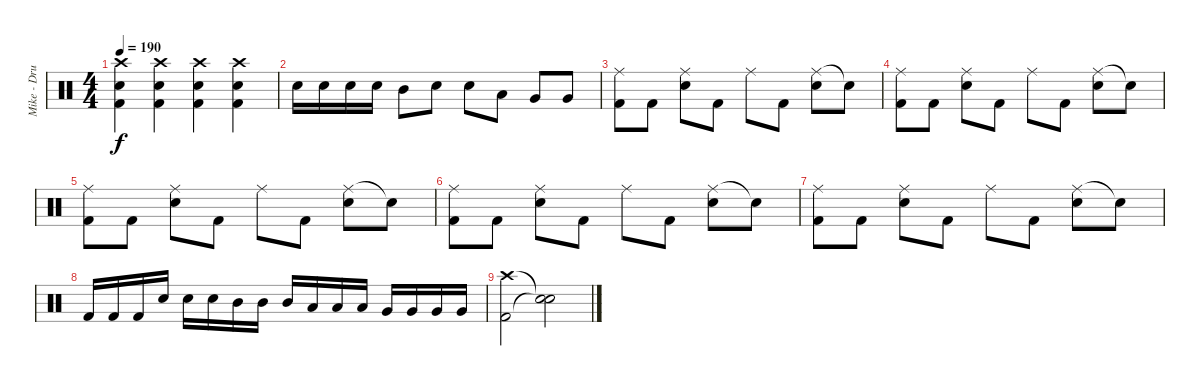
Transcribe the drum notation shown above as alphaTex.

\track ("Mike - Drums" "Mike - Dru") {instrument percussion}
\staff {score}
\articulation defaults
\ts (4 4)
\tempo 190
\clef neutral
\ks c
("Crash high (hit)" "Snare (hit) 2" "Kick (hit) 2").4{dy f} ("Crash high (hit)" "Snare (hit) 2" "Kick (hit) 2").4 ("Crash high (hit)" "Snare (hit) 2" "Kick (hit) 2").4 ("Crash high (hit)" "Snare (hit) 2" "Kick (hit) 2").4 |
"Snare (hit) 2".16 "Snare (hit) 2".16 "Snare (hit) 2".16 "Snare (hit) 2".16 "Mid Tom (hit)".8 "Snare (hit) 2".8 "Snare (hit) 2".8 "Low Tom (hit)".8 "Very Low Tom (hit)".8 "Very Low Tom (hit)".8 |
("Ride (middle)" "Kick (hit) 2").8 "Kick (hit) 2".8 ("Ride (middle)" "Snare (hit) 2").8 "Kick (hit) 2".8 "Ride (middle)".8 "Kick (hit) 2".8 ("Ride (middle)" "Snare (hit) 2").8 "Snare (hit)"{t}.8 |
("Ride (middle)" "Kick (hit) 2").8 "Kick (hit) 2".8 ("Ride (middle)" "Snare (hit) 2").8 "Kick (hit) 2".8 "Ride (middle)".8 "Kick (hit) 2".8 ("Ride (middle)" "Snare (hit) 2").8 "Snare (hit)"{t}.8 |
("Ride (middle)" "Kick (hit) 2").8 "Kick (hit) 2".8 ("Ride (middle)" "Snare (hit) 2").8 "Kick (hit) 2".8 "Ride (middle)".8 "Kick (hit) 2".8 ("Ride (middle)" "Snare (hit) 2").8 "Snare (hit)"{t}.8 |
("Ride (middle)" "Kick (hit) 2").8 "Kick (hit) 2".8 ("Ride (middle)" "Snare (hit) 2").8 "Kick (hit) 2".8 "Ride (middle)".8 "Kick (hit) 2".8 ("Ride (middle)" "Snare (hit) 2").8 "Snare (hit)"{t}.8 |
("Ride (middle)" "Kick (hit) 2").8 "Kick (hit) 2".8 ("Ride (middle)" "Snare (hit) 2").8 "Kick (hit) 2".8 "Ride (middle)".8 "Kick (hit) 2".8 ("Ride (middle)" "Snare (hit) 2").8 "Snare (hit)"{t}.8 |
"Kick (hit) 2".16 "Kick (hit) 2".16 "Kick (hit) 2".16 "Snare (hit) 2".16 "Snare (hit) 2".16 "Snare (hit) 2".16 "Mid Tom (hit)".16 "Mid Tom (hit)".16 "Mid Tom (hit)".16 "Low Tom (hit)".16 "Low Tom (hit)".16 "Low Tom (hit)".16 "Very Low Tom (hit)".16 "Very Low Tom (hit)".16 "Very Low Tom (hit)".16 "Very Low Tom (hit)".16 |
("Crash high (hit)" "Kick (hit) 2").2 ("Snare (hit)"{t} "Snare (hit)"{t}).2
